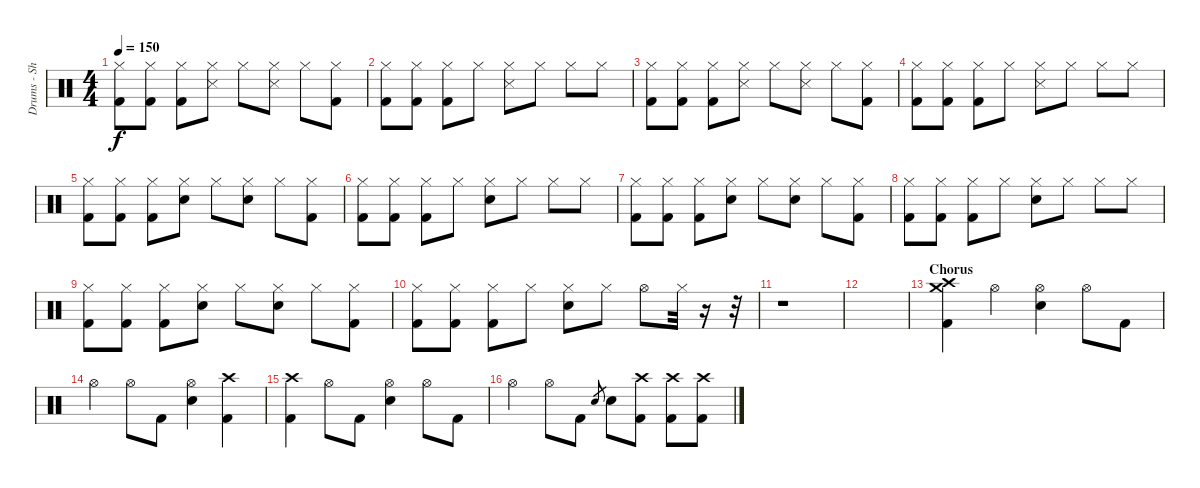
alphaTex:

\track ("Drums - Shelton" "Drums - Sh") {instrument percussion}
\staff {score}
\articulation defaults
\ts (4 4)
\tempo 150
\clef neutral
\ks c
("Hi-Hat (closed)" "Kick (hit) 2").8{dy f} ("Hi-Hat (closed)" "Kick (hit) 2").8 ("Hi-Hat (closed)" "Kick (hit) 2").8 ("Hi-Hat (closed)" "Snare (side stick) 3").8 "Hi-Hat (closed)".8 ("Hi-Hat (closed)" "Snare (side stick) 3").8 "Hi-Hat (closed)".8 ("Hi-Hat (closed)" "Kick (hit) 2").8 |
("Hi-Hat (closed)" "Kick (hit) 2").8 ("Hi-Hat (closed)" "Kick (hit) 2").8 ("Hi-Hat (closed)" "Kick (hit) 2").8 "Hi-Hat (closed)".8 ("Hi-Hat (closed)" "Snare (side stick) 3").8 "Hi-Hat (closed)".8 "Hi-Hat (closed)".8 "Hi-Hat (closed)".8 |
("Hi-Hat (closed)" "Kick (hit) 2").8 ("Hi-Hat (closed)" "Kick (hit) 2").8 ("Hi-Hat (closed)" "Kick (hit) 2").8 ("Hi-Hat (closed)" "Snare (side stick) 3").8 "Hi-Hat (closed)".8 ("Hi-Hat (closed)" "Snare (side stick) 3").8 "Hi-Hat (closed)".8 ("Hi-Hat (closed)" "Kick (hit) 2").8 |
("Hi-Hat (closed)" "Kick (hit) 2").8 ("Hi-Hat (closed)" "Kick (hit) 2").8 ("Hi-Hat (closed)" "Kick (hit) 2").8 "Hi-Hat (closed)".8 ("Hi-Hat (closed)" "Snare (side stick) 3").8 "Hi-Hat (closed)".8 "Hi-Hat (closed)".8 "Hi-Hat (closed)".8 |
("Hi-Hat (closed)" "Kick (hit) 2").8 ("Hi-Hat (closed)" "Kick (hit) 2").8 ("Hi-Hat (closed)" "Kick (hit) 2").8 ("Hi-Hat (closed)" "Electric Snare (hit)").8 "Hi-Hat (closed)".8 ("Hi-Hat (closed)" "Electric Snare (hit)").8 "Hi-Hat (closed)".8 ("Hi-Hat (closed)" "Kick (hit) 2").8 |
("Hi-Hat (closed)" "Kick (hit) 2").8 ("Hi-Hat (closed)" "Kick (hit) 2").8 ("Hi-Hat (closed)" "Kick (hit) 2").8 "Hi-Hat (closed)".8 ("Hi-Hat (closed)" "Electric Snare (hit)").8 "Hi-Hat (closed)".8 "Hi-Hat (closed)".8 "Hi-Hat (closed)".8 |
("Hi-Hat (closed)" "Kick (hit) 2").8 ("Hi-Hat (closed)" "Kick (hit) 2").8 ("Hi-Hat (closed)" "Kick (hit) 2").8 ("Hi-Hat (closed)" "Electric Snare (hit)").8 "Hi-Hat (closed)".8 ("Hi-Hat (closed)" "Electric Snare (hit)").8 "Hi-Hat (closed)".8 ("Hi-Hat (closed)" "Kick (hit) 2").8 |
("Hi-Hat (closed)" "Kick (hit) 2").8 ("Hi-Hat (closed)" "Kick (hit) 2").8 ("Hi-Hat (closed)" "Kick (hit) 2").8 "Hi-Hat (closed)".8 ("Hi-Hat (closed)" "Electric Snare (hit)").8 "Hi-Hat (closed)".8 "Hi-Hat (closed)".8 "Hi-Hat (closed)".8 |
("Hi-Hat (closed)" "Kick (hit) 2").8 ("Hi-Hat (closed)" "Kick (hit) 2").8 ("Hi-Hat (closed)" "Kick (hit) 2").8 ("Hi-Hat (closed)" "Electric Snare (hit)").8 "Hi-Hat (closed)".8 ("Hi-Hat (closed)" "Electric Snare (hit)").8 "Hi-Hat (closed)".8 ("Hi-Hat (closed)" "Kick (hit) 2").8 |
("Hi-Hat (closed)" "Kick (hit) 2").8 ("Hi-Hat (closed)" "Kick (hit) 2").8 ("Hi-Hat (closed)" "Kick (hit) 2").8 "Hi-Hat (closed)".8 ("Hi-Hat (closed)" "Electric Snare (hit)").8 "Hi-Hat (closed)".8 "Hi-Hat (open)".8 "Hi-Hat (closed)".32 r.16 r.32 |
r.1 |
|
\section ("" "Chorus")
("Crash medium (hit)" "Crash high (hit)" "Kick (hit) 2").4 "Hi-Hat (open)".4 ("Hi-Hat (open)" "Electric Snare (hit)").4 "Hi-Hat (open)".8 "Kick (hit) 2".8 |
"Hi-Hat (open)".4 "Hi-Hat (open)".8 "Kick (hit) 2".8 ("Hi-Hat (open)" "Electric Snare (hit)").4 ("Crash high (hit)" "Kick (hit) 2").4 |
("Crash high (hit)" "Kick (hit) 2").4 "Hi-Hat (open)".8 "Kick (hit) 2".8 ("Hi-Hat (open)" "Electric Snare (hit)").4 "Hi-Hat (open)".8 "Kick (hit) 2".8 |
"Hi-Hat (open)".4 "Hi-Hat (open)".8 "Kick (hit) 2".8 "Electric Snare (hit)".8{gr} "Electric Snare (hit)".8 ("Crash high (hit)" "Kick (hit) 2").8 ("Crash high (hit)" "Kick (hit) 2").8 ("Crash high (hit)" "Kick (hit) 2").8
